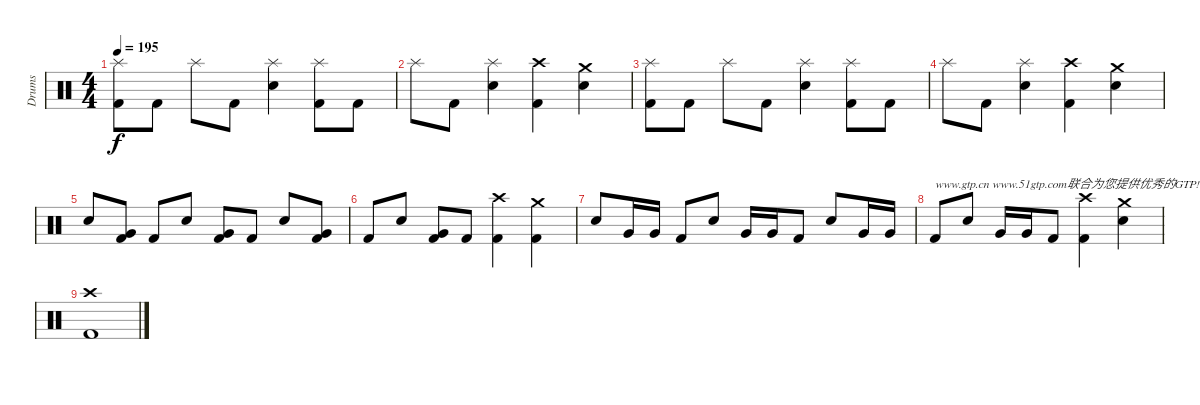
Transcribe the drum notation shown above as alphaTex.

\track ("Drums" "Drums") {instrument percussion}
\staff {score}
\articulation defaults
\ts (4 4)
\tempo 195
\clef neutral
\ks c
("Splash (hit)" "Kick (hit) 2").8{dy f} "Kick (hit) 2".8 "Splash (hit)".8 "Kick (hit) 2".8 ("Splash (hit)" "Snare (hit) 2").4 ("Splash (hit)" "Kick (hit) 2").8 "Kick (hit) 2".8 |
"Splash (hit)".8 "Kick (hit) 2".8 ("Splash (hit)" "Snare (hit) 2").4 ("Crash high (hit)" "Kick (hit) 2").4 ("Crash medium (hit)" "Snare (hit) 2").4 |
("Splash (hit)" "Kick (hit) 2").8 "Kick (hit) 2".8 "Splash (hit)".8 "Kick (hit) 2".8 ("Splash (hit)" "Snare (hit) 2").4 ("Splash (hit)" "Kick (hit) 2").8 "Kick (hit) 2".8 |
"Splash (hit)".8 "Kick (hit) 2".8 ("Splash (hit)" "Snare (hit) 2").4 ("Crash high (hit)" "Kick (hit) 2").4 ("Crash medium (hit)" "Snare (hit) 2").4 |
"Snare (hit) 2".8 ("Very Low Tom (hit)" "Kick (hit) 2").8 "Kick (hit) 2".8 "Snare (hit) 2".8 ("Very Low Tom (hit)" "Kick (hit) 2").8 "Kick (hit) 2".8 "Snare (hit) 2".8 ("Very Low Tom (hit)" "Kick (hit) 2").8 |
"Kick (hit) 2".8 "Snare (hit) 2".8 ("Very Low Tom (hit)" "Kick (hit) 2").8 "Kick (hit) 2".8 ("Crash high (hit)" "Kick (hit) 2").4 ("Crash medium (hit)" "Kick (hit) 2").4 |
"Snare (hit) 2".8 "Very Low Tom (hit)".16 "Very Low Tom (hit)".16 "Kick (hit) 2".8 "Snare (hit) 2".8 "Very Low Tom (hit)".16 "Very Low Tom (hit)".16 "Kick (hit) 2".8 "Snare (hit) 2".8 "Very Low Tom (hit)".16 "Very Low Tom (hit)".16 |
"Kick (hit) 2".8{txt "www.gtp.cn www.51gtp.com联合为您提供优秀的GTP!"} "Snare (hit) 2".8 "Very Low Tom (hit)".16 "Very Low Tom (hit)".16 "Kick (hit) 2".8 ("Crash high (hit)" "Kick (hit) 2").4 ("Crash medium (hit)" "Snare (hit) 2").4 |
("Crash high (hit)" "Kick (hit) 2").1
